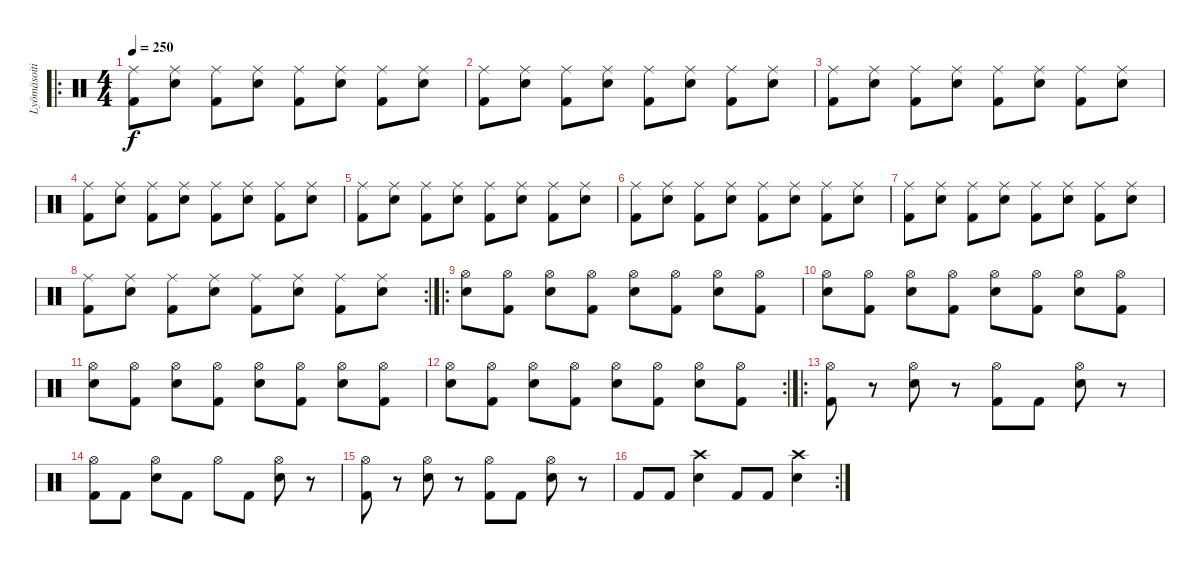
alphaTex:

\track ("Lyömäsoitin" "Lyömäsoiti") {instrument percussion}
\staff {score}
\articulation defaults
\ro
\ts (4 4)
\tempo 250
\clef neutral
\ks c
("Ride (middle)" "Kick (hit) 2").8{dy f} ("Ride (middle)" "Electric Snare (hit)").8 ("Ride (middle)" "Kick (hit) 2").8 ("Ride (middle)" "Electric Snare (hit)").8 ("Ride (middle)" "Kick (hit) 2").8 ("Ride (middle)" "Electric Snare (hit)").8 ("Ride (middle)" "Kick (hit) 2").8 ("Ride (middle)" "Electric Snare (hit)").8 |
("Ride (middle)" "Kick (hit) 2").8 ("Ride (middle)" "Electric Snare (hit)").8 ("Ride (middle)" "Kick (hit) 2").8 ("Ride (middle)" "Electric Snare (hit)").8 ("Ride (middle)" "Kick (hit) 2").8 ("Ride (middle)" "Electric Snare (hit)").8 ("Ride (middle)" "Kick (hit) 2").8 ("Ride (middle)" "Electric Snare (hit)").8 |
("Ride (middle)" "Kick (hit) 2").8 ("Ride (middle)" "Electric Snare (hit)").8 ("Ride (middle)" "Kick (hit) 2").8 ("Ride (middle)" "Electric Snare (hit)").8 ("Ride (middle)" "Kick (hit) 2").8 ("Ride (middle)" "Electric Snare (hit)").8 ("Ride (middle)" "Kick (hit) 2").8 ("Ride (middle)" "Electric Snare (hit)").8 |
("Ride (middle)" "Kick (hit) 2").8 ("Ride (middle)" "Electric Snare (hit)").8 ("Ride (middle)" "Kick (hit) 2").8 ("Ride (middle)" "Electric Snare (hit)").8 ("Ride (middle)" "Kick (hit) 2").8 ("Ride (middle)" "Electric Snare (hit)").8 ("Ride (middle)" "Kick (hit) 2").8 ("Ride (middle)" "Electric Snare (hit)").8 |
("Ride (middle)" "Kick (hit) 2").8 ("Ride (middle)" "Electric Snare (hit)").8 ("Ride (middle)" "Kick (hit) 2").8 ("Ride (middle)" "Electric Snare (hit)").8 ("Ride (middle)" "Kick (hit) 2").8 ("Ride (middle)" "Electric Snare (hit)").8 ("Ride (middle)" "Kick (hit) 2").8 ("Ride (middle)" "Electric Snare (hit)").8 |
("Ride (middle)" "Kick (hit) 2").8 ("Ride (middle)" "Electric Snare (hit)").8 ("Ride (middle)" "Kick (hit) 2").8 ("Ride (middle)" "Electric Snare (hit)").8 ("Ride (middle)" "Kick (hit) 2").8 ("Ride (middle)" "Electric Snare (hit)").8 ("Ride (middle)" "Kick (hit) 2").8 ("Ride (middle)" "Electric Snare (hit)").8 |
("Ride (middle)" "Kick (hit) 2").8 ("Ride (middle)" "Electric Snare (hit)").8 ("Ride (middle)" "Kick (hit) 2").8 ("Ride (middle)" "Electric Snare (hit)").8 ("Ride (middle)" "Kick (hit) 2").8 ("Ride (middle)" "Electric Snare (hit)").8 ("Ride (middle)" "Kick (hit) 2").8 ("Ride (middle)" "Electric Snare (hit)").8 |
\rc 2
("Ride (middle)" "Kick (hit) 2").8 ("Ride (middle)" "Electric Snare (hit)").8 ("Ride (middle)" "Kick (hit) 2").8 ("Ride (middle)" "Electric Snare (hit)").8 ("Ride (middle)" "Kick (hit) 2").8 ("Ride (middle)" "Electric Snare (hit)").8 ("Ride (middle)" "Kick (hit) 2").8 ("Ride (middle)" "Electric Snare (hit)").8 |
\ro
("Hi-Hat (open)" "Electric Snare (hit)").8 ("Hi-Hat (open)" "Kick (hit) 2").8 ("Hi-Hat (open)" "Electric Snare (hit)").8 ("Hi-Hat (open)" "Kick (hit) 2").8 ("Hi-Hat (open)" "Electric Snare (hit)").8 ("Hi-Hat (open)" "Kick (hit) 2").8 ("Hi-Hat (open)" "Electric Snare (hit)").8 ("Hi-Hat (open)" "Kick (hit) 2").8 |
("Hi-Hat (open)" "Electric Snare (hit)").8 ("Hi-Hat (open)" "Kick (hit) 2").8 ("Hi-Hat (open)" "Electric Snare (hit)").8 ("Hi-Hat (open)" "Kick (hit) 2").8 ("Hi-Hat (open)" "Electric Snare (hit)").8 ("Hi-Hat (open)" "Kick (hit) 2").8 ("Hi-Hat (open)" "Electric Snare (hit)").8 ("Hi-Hat (open)" "Kick (hit) 2").8 |
("Hi-Hat (open)" "Electric Snare (hit)").8 ("Hi-Hat (open)" "Kick (hit) 2").8 ("Hi-Hat (open)" "Electric Snare (hit)").8 ("Hi-Hat (open)" "Kick (hit) 2").8 ("Hi-Hat (open)" "Electric Snare (hit)").8 ("Hi-Hat (open)" "Kick (hit) 2").8 ("Hi-Hat (open)" "Electric Snare (hit)").8 ("Hi-Hat (open)" "Kick (hit) 2").8 |
\rc 2
("Hi-Hat (open)" "Electric Snare (hit)").8 ("Hi-Hat (open)" "Kick (hit) 2").8 ("Hi-Hat (open)" "Electric Snare (hit)").8 ("Hi-Hat (open)" "Kick (hit) 2").8 ("Hi-Hat (open)" "Electric Snare (hit)").8 ("Hi-Hat (open)" "Kick (hit) 2").8 ("Hi-Hat (open)" "Electric Snare (hit)").8 ("Hi-Hat (open)" "Kick (hit) 2").8 |
\ro
("Hi-Hat (open)" "Kick (hit) 2").8 r.8 ("Hi-Hat (open)" "Electric Snare (hit)").8 r.8 ("Hi-Hat (open)" "Kick (hit) 2").8 "Kick (hit) 2".8 ("Hi-Hat (open)" "Electric Snare (hit)").8 r.8 |
("Hi-Hat (open)" "Kick (hit) 2").8 "Kick (hit) 2".8 ("Hi-Hat (open)" "Electric Snare (hit)").8 "Kick (hit) 2".8 "Hi-Hat (open)".8 "Kick (hit) 2".8 ("Hi-Hat (open)" "Electric Snare (hit)").8 r.8 |
("Hi-Hat (open)" "Kick (hit) 2").8 r.8 ("Hi-Hat (open)" "Electric Snare (hit)").8 r.8 ("Hi-Hat (open)" "Kick (hit) 2").8 "Kick (hit) 2".8 ("Hi-Hat (open)" "Electric Snare (hit)").8 r.8 |
\rc 2 "Kick (hit) 2".8 "Kick (hit) 2".8
("Electric Snare (hit)" "Crash high (hit)").4 "Kick (hit) 2".8 "Kick (hit) 2".8 ("Electric Snare (hit)" "Crash high (hit)").4
